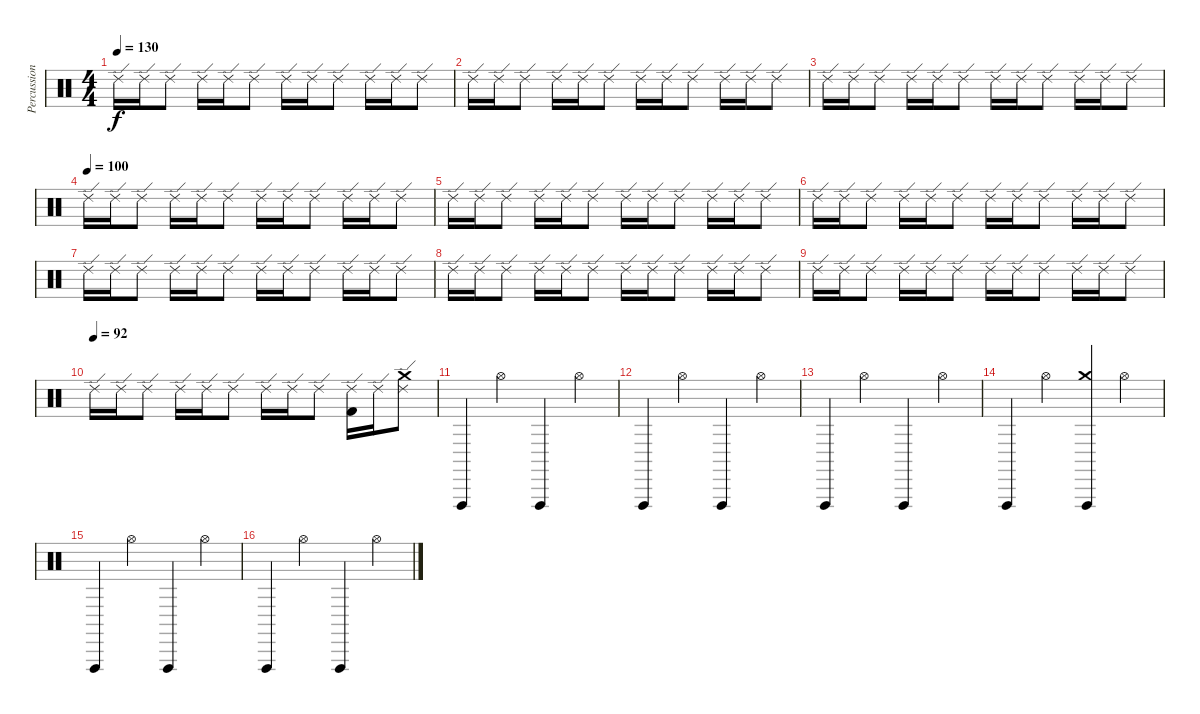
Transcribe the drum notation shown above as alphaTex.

\track ("Percussions" "Percussion") {instrument percussion}
\staff {score}
\articulation defaults
\ts (4 4)
\tempo 130
\clef neutral
\ks c "Ride (edge) 2".16{dy f} "Ride (edge) 2".16 "Ride (edge) 2".8 "Ride (edge) 2".16 "Ride (edge) 2".16 "Ride (edge) 2".8 "Ride (edge) 2".16 "Ride (edge) 2".16 "Ride (edge) 2".8 "Ride (edge) 2".16 "Ride (edge) 2".16 "Ride (edge) 2".8
|
"Ride (edge) 2".16 "Ride (edge) 2".16 "Ride (edge) 2".8 "Ride (edge) 2".16 "Ride (edge) 2".16 "Ride (edge) 2".8 "Ride (edge) 2".16 "Ride (edge) 2".16 "Ride (edge) 2".8 "Ride (edge) 2".16 "Ride (edge) 2".16 "Ride (edge) 2".8 |
"Ride (edge) 2".16 "Ride (edge) 2".16 "Ride (edge) 2".8 "Ride (edge) 2".16 "Ride (edge) 2".16 "Ride (edge) 2".8 "Ride (edge) 2".16 "Ride (edge) 2".16 "Ride (edge) 2".8 "Ride (edge) 2".16 "Ride (edge) 2".16 "Ride (edge) 2".8 |
\tempo (100)
"Ride (edge) 2".16 "Ride (edge) 2".16 "Ride (edge) 2".8 "Ride (edge) 2".16 "Ride (edge) 2".16 "Ride (edge) 2".8 "Ride (edge) 2".16 "Ride (edge) 2".16 "Ride (edge) 2".8 "Ride (edge) 2".16 "Ride (edge) 2".16 "Ride (edge) 2".8 |
"Ride (edge) 2".16 "Ride (edge) 2".16 "Ride (edge) 2".8 "Ride (edge) 2".16 "Ride (edge) 2".16 "Ride (edge) 2".8 "Ride (edge) 2".16 "Ride (edge) 2".16 "Ride (edge) 2".8 "Ride (edge) 2".16 "Ride (edge) 2".16 "Ride (edge) 2".8 |
"Ride (edge) 2".16 "Ride (edge) 2".16 "Ride (edge) 2".8 "Ride (edge) 2".16 "Ride (edge) 2".16 "Ride (edge) 2".8 "Ride (edge) 2".16 "Ride (edge) 2".16 "Ride (edge) 2".8 "Ride (edge) 2".16 "Ride (edge) 2".16 "Ride (edge) 2".8 |
"Ride (edge) 2".16 "Ride (edge) 2".16 "Ride (edge) 2".8 "Ride (edge) 2".16 "Ride (edge) 2".16 "Ride (edge) 2".8 "Ride (edge) 2".16 "Ride (edge) 2".16 "Ride (edge) 2".8 "Ride (edge) 2".16 "Ride (edge) 2".16 "Ride (edge) 2".8 |
"Ride (edge) 2".16 "Ride (edge) 2".16 "Ride (edge) 2".8 "Ride (edge) 2".16 "Ride (edge) 2".16 "Ride (edge) 2".8 "Ride (edge) 2".16 "Ride (edge) 2".16 "Ride (edge) 2".8 "Ride (edge) 2".16 "Ride (edge) 2".16 "Ride (edge) 2".8 |
"Ride (edge) 2".16 "Ride (edge) 2".16 "Ride (edge) 2".8 "Ride (edge) 2".16 "Ride (edge) 2".16 "Ride (edge) 2".8 "Ride (edge) 2".16 "Ride (edge) 2".16 "Ride (edge) 2".8 "Ride (edge) 2".16 "Ride (edge) 2".16 "Ride (edge) 2".8 |
\tempo (92)
"Ride (edge) 2".16 "Ride (edge) 2".16 "Ride (edge) 2".8 "Ride (edge) 2".16 "Ride (edge) 2".16 "Ride (edge) 2".8 "Ride (edge) 2".16 "Ride (edge) 2".16 "Ride (edge) 2".8 ("Kick (hit) 2" "Ride (edge) 2").16 "Ride (edge) 2".16 ("Crash medium (hit)" "Ride (edge) 2").8 |
"Vibraslap (hit)".4 "Hi-Hat (open)".4 "Vibraslap (hit)".4 "Hi-Hat (open)".4 |
"Vibraslap (hit)".4 "Hi-Hat (open)".4 "Vibraslap (hit)".4 "Hi-Hat (open)".4 |
"Vibraslap (hit)".4 "Hi-Hat (open)".4 "Vibraslap (hit)".4 "Hi-Hat (open)".4 |
"Vibraslap (hit)".4 "Hi-Hat (open)".4 ("Vibraslap (hit)" "Crash medium (hit)").4 "Hi-Hat (open)".4 |
"Vibraslap (hit)".4 "Hi-Hat (open)".4 "Vibraslap (hit)".4 "Hi-Hat (open)".4 |
"Vibraslap (hit)".4 "Hi-Hat (open)".4 "Vibraslap (hit)".4 "Hi-Hat (open)".4
